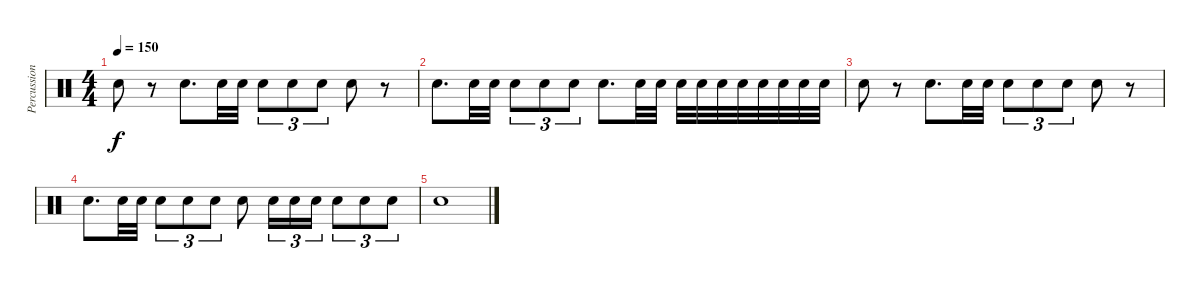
\track ("Percussion" "Percussion") {instrument percussion}
\staff {score}
\articulation defaults
\ts (4 4)
\tempo 150
\clef neutral
\ks c "Electric Snare (hit)".8{dy f}
r.8 "Electric Snare (hit)".8{d} "Electric Snare (hit)".32 "Electric Snare (hit)".32 "Electric Snare (hit)".8{tu (3 2)} "Electric Snare (hit)".8{tu (3 2)} "Electric Snare (hit)".8{tu (3 2)} "Electric Snare (hit)".8 r.8 |
"Electric Snare (hit)".8{d} "Electric Snare (hit)".32 "Electric Snare (hit)".32 "Electric Snare (hit)".8{tu (3 2)} "Electric Snare (hit)".8{tu (3 2)} "Electric Snare (hit)".8{tu (3 2)} "Electric Snare (hit)".8{d} "Electric Snare (hit)".32 "Electric Snare (hit)".32 "Electric Snare (hit)".32 "Electric Snare (hit)".32 "Electric Snare (hit)".32 "Electric Snare (hit)".32 "Electric Snare (hit)".32 "Electric Snare (hit)".32 "Electric Snare (hit)".32 "Electric Snare (hit)".32 |
"Electric Snare (hit)".8 r.8 "Electric Snare (hit)".8{d} "Electric Snare (hit)".32 "Electric Snare (hit)".32 "Electric Snare (hit)".8{tu (3 2)} "Electric Snare (hit)".8{tu (3 2)} "Electric Snare (hit)".8{tu (3 2)} "Electric Snare (hit)".8 r.8 |
"Electric Snare (hit)".8{d} "Electric Snare (hit)".32 "Electric Snare (hit)".32 "Electric Snare (hit)".8{tu (3 2)} "Electric Snare (hit)".8{tu (3 2)} "Electric Snare (hit)".8{tu (3 2)} "Electric Snare (hit)".8 "Electric Snare (hit)".16{tu (3 2)} "Electric Snare (hit)".16{tu (3 2)} "Electric Snare (hit)".16{tu (3 2)} "Electric Snare (hit)".8{tu (3 2)} "Electric Snare (hit)".8{tu (3 2)} "Electric Snare (hit)".8{tu (3 2)} |
"Electric Snare (hit)".1
